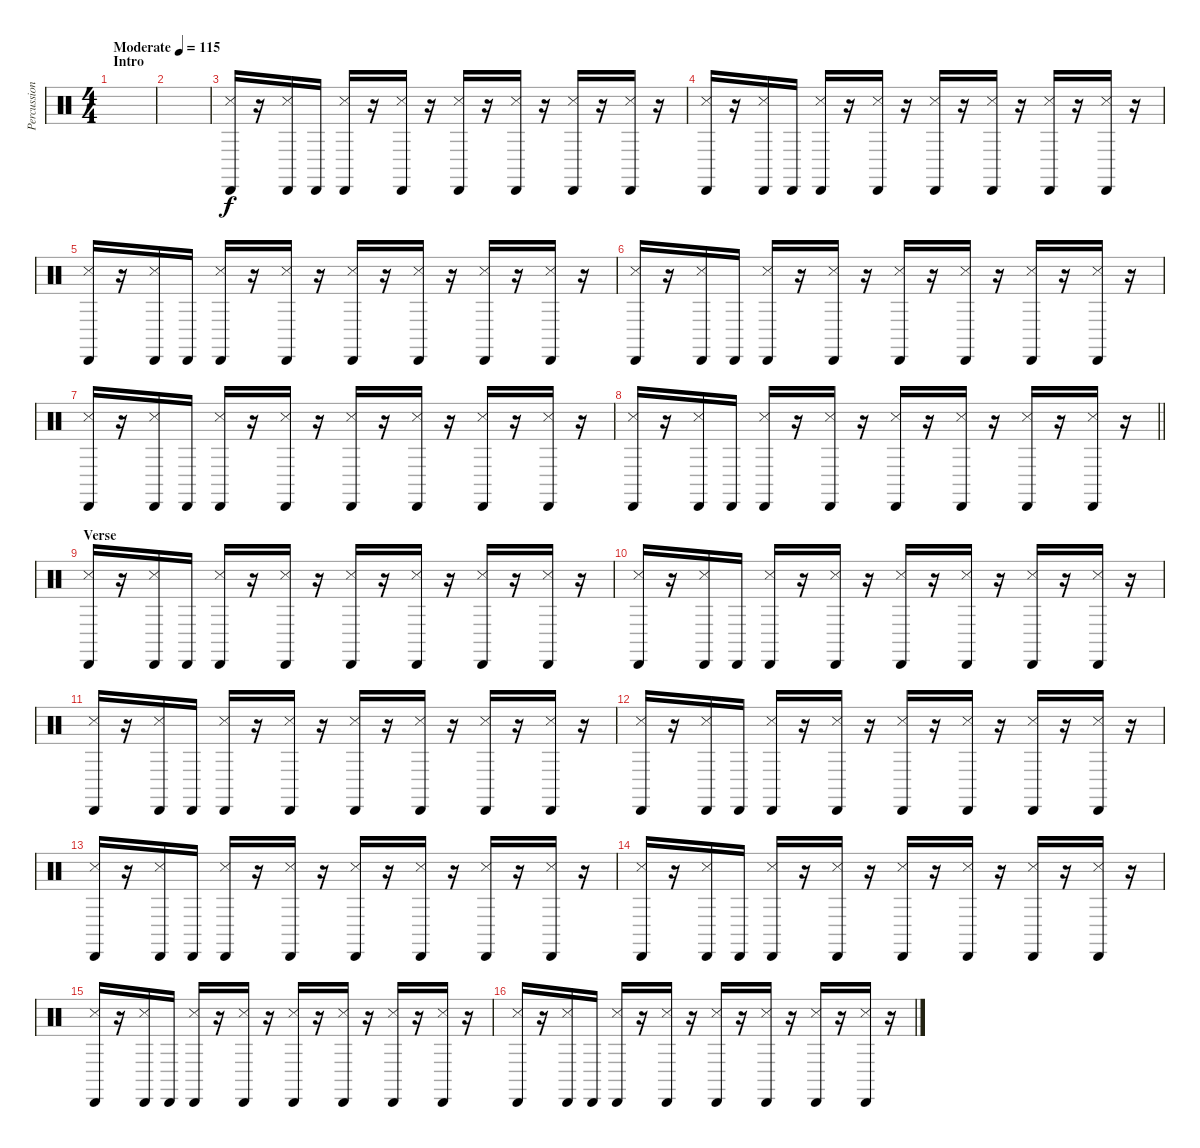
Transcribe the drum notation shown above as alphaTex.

\track ("Percussion" "Percussion") {instrument percussion}
\staff {score}
\articulation defaults
\ts (4 4)
\section ("" "Intro")
\tempo (115 "Moderate")
\clef neutral
\ks c
|
|
("Cabasa (hit)" "Snare (side stick) 3").16 r.16 ("Cabasa (hit)" "Snare (side stick) 3").16 "Cabasa (hit)".16 ("Cabasa (hit)" "Snare (side stick) 3").16 r.16 ("Cabasa (hit)" "Snare (side stick) 3").16 r.16 ("Cabasa (hit)" "Snare (side stick) 3").16 r.16 ("Cabasa (hit)" "Snare (side stick) 3").16 r.16 ("Cabasa (hit)" "Snare (side stick) 3").16 r.16 ("Cabasa (hit)" "Snare (side stick) 3").16 r.16 |
("Cabasa (hit)" "Snare (side stick) 3").16 r.16 ("Cabasa (hit)" "Snare (side stick) 3").16 "Cabasa (hit)".16 ("Cabasa (hit)" "Snare (side stick) 3").16 r.16 ("Cabasa (hit)" "Snare (side stick) 3").16 r.16 ("Cabasa (hit)" "Snare (side stick) 3").16 r.16 ("Cabasa (hit)" "Snare (side stick) 3").16 r.16 ("Cabasa (hit)" "Snare (side stick) 3").16 r.16 ("Cabasa (hit)" "Snare (side stick) 3").16 r.16 |
("Cabasa (hit)" "Snare (side stick) 3").16 r.16 ("Cabasa (hit)" "Snare (side stick) 3").16 "Cabasa (hit)".16 ("Cabasa (hit)" "Snare (side stick) 3").16 r.16 ("Cabasa (hit)" "Snare (side stick) 3").16 r.16 ("Cabasa (hit)" "Snare (side stick) 3").16 r.16 ("Cabasa (hit)" "Snare (side stick) 3").16 r.16 ("Cabasa (hit)" "Snare (side stick) 3").16 r.16 ("Cabasa (hit)" "Snare (side stick) 3").16 r.16 |
("Cabasa (hit)" "Snare (side stick) 3").16 r.16 ("Cabasa (hit)" "Snare (side stick) 3").16 "Cabasa (hit)".16 ("Cabasa (hit)" "Snare (side stick) 3").16 r.16 ("Cabasa (hit)" "Snare (side stick) 3").16 r.16 ("Cabasa (hit)" "Snare (side stick) 3").16 r.16 ("Cabasa (hit)" "Snare (side stick) 3").16 r.16 ("Cabasa (hit)" "Snare (side stick) 3").16 r.16 ("Cabasa (hit)" "Snare (side stick) 3").16 r.16 |
("Cabasa (hit)" "Snare (side stick) 3").16 r.16 ("Cabasa (hit)" "Snare (side stick) 3").16 "Cabasa (hit)".16 ("Cabasa (hit)" "Snare (side stick) 3").16 r.16 ("Cabasa (hit)" "Snare (side stick) 3").16 r.16 ("Cabasa (hit)" "Snare (side stick) 3").16 r.16 ("Cabasa (hit)" "Snare (side stick) 3").16 r.16 ("Cabasa (hit)" "Snare (side stick) 3").16 r.16 ("Cabasa (hit)" "Snare (side stick) 3").16 r.16 |
\barLineRight lightlight
("Cabasa (hit)" "Snare (side stick) 3").16 r.16 ("Cabasa (hit)" "Snare (side stick) 3").16 "Cabasa (hit)".16 ("Cabasa (hit)" "Snare (side stick) 3").16 r.16 ("Cabasa (hit)" "Snare (side stick) 3").16 r.16 ("Cabasa (hit)" "Snare (side stick) 3").16 r.16 ("Cabasa (hit)" "Snare (side stick) 3").16 r.16 ("Cabasa (hit)" "Snare (side stick) 3").16 r.16 ("Cabasa (hit)" "Snare (side stick) 3").16 r.16 |
\section ("" "Verse")
("Cabasa (hit)" "Snare (side stick) 3").16 r.16 ("Cabasa (hit)" "Snare (side stick) 3").16 "Cabasa (hit)".16 ("Cabasa (hit)" "Snare (side stick) 3").16 r.16 ("Cabasa (hit)" "Snare (side stick) 3").16 r.16 ("Cabasa (hit)" "Snare (side stick) 3").16 r.16 ("Cabasa (hit)" "Snare (side stick) 3").16 r.16 ("Cabasa (hit)" "Snare (side stick) 3").16 r.16 ("Cabasa (hit)" "Snare (side stick) 3").16 r.16 |
("Cabasa (hit)" "Snare (side stick) 3").16 r.16 ("Cabasa (hit)" "Snare (side stick) 3").16 "Cabasa (hit)".16 ("Cabasa (hit)" "Snare (side stick) 3").16 r.16 ("Cabasa (hit)" "Snare (side stick) 3").16 r.16 ("Cabasa (hit)" "Snare (side stick) 3").16 r.16 ("Cabasa (hit)" "Snare (side stick) 3").16 r.16 ("Cabasa (hit)" "Snare (side stick) 3").16 r.16 ("Cabasa (hit)" "Snare (side stick) 3").16 r.16 |
("Cabasa (hit)" "Snare (side stick) 3").16 r.16 ("Cabasa (hit)" "Snare (side stick) 3").16 "Cabasa (hit)".16 ("Cabasa (hit)" "Snare (side stick) 3").16 r.16 ("Cabasa (hit)" "Snare (side stick) 3").16 r.16 ("Cabasa (hit)" "Snare (side stick) 3").16 r.16 ("Cabasa (hit)" "Snare (side stick) 3").16 r.16 ("Cabasa (hit)" "Snare (side stick) 3").16 r.16 ("Cabasa (hit)" "Snare (side stick) 3").16 r.16 |
("Cabasa (hit)" "Snare (side stick) 3").16 r.16 ("Cabasa (hit)" "Snare (side stick) 3").16 "Cabasa (hit)".16 ("Cabasa (hit)" "Snare (side stick) 3").16 r.16 ("Cabasa (hit)" "Snare (side stick) 3").16 r.16 ("Cabasa (hit)" "Snare (side stick) 3").16 r.16 ("Cabasa (hit)" "Snare (side stick) 3").16 r.16 ("Cabasa (hit)" "Snare (side stick) 3").16 r.16 ("Cabasa (hit)" "Snare (side stick) 3").16 r.16 |
("Cabasa (hit)" "Snare (side stick) 3").16 r.16 ("Cabasa (hit)" "Snare (side stick) 3").16 "Cabasa (hit)".16 ("Cabasa (hit)" "Snare (side stick) 3").16 r.16 ("Cabasa (hit)" "Snare (side stick) 3").16 r.16 ("Cabasa (hit)" "Snare (side stick) 3").16 r.16 ("Cabasa (hit)" "Snare (side stick) 3").16 r.16 ("Cabasa (hit)" "Snare (side stick) 3").16 r.16 ("Cabasa (hit)" "Snare (side stick) 3").16 r.16 |
("Cabasa (hit)" "Snare (side stick) 3").16 r.16 ("Cabasa (hit)" "Snare (side stick) 3").16 "Cabasa (hit)".16 ("Cabasa (hit)" "Snare (side stick) 3").16 r.16 ("Cabasa (hit)" "Snare (side stick) 3").16 r.16 ("Cabasa (hit)" "Snare (side stick) 3").16 r.16 ("Cabasa (hit)" "Snare (side stick) 3").16 r.16 ("Cabasa (hit)" "Snare (side stick) 3").16 r.16 ("Cabasa (hit)" "Snare (side stick) 3").16 r.16 |
("Cabasa (hit)" "Snare (side stick) 3").16 r.16 ("Cabasa (hit)" "Snare (side stick) 3").16 "Cabasa (hit)".16 ("Cabasa (hit)" "Snare (side stick) 3").16 r.16 ("Cabasa (hit)" "Snare (side stick) 3").16 r.16 ("Cabasa (hit)" "Snare (side stick) 3").16 r.16 ("Cabasa (hit)" "Snare (side stick) 3").16 r.16 ("Cabasa (hit)" "Snare (side stick) 3").16 r.16 ("Cabasa (hit)" "Snare (side stick) 3").16 r.16 |
("Cabasa (hit)" "Snare (side stick) 3").16 r.16 ("Cabasa (hit)" "Snare (side stick) 3").16 "Cabasa (hit)".16 ("Cabasa (hit)" "Snare (side stick) 3").16 r.16 ("Cabasa (hit)" "Snare (side stick) 3").16 r.16 ("Cabasa (hit)" "Snare (side stick) 3").16 r.16 ("Cabasa (hit)" "Snare (side stick) 3").16 r.16 ("Cabasa (hit)" "Snare (side stick) 3").16 r.16 ("Cabasa (hit)" "Snare (side stick) 3").16 r.16
